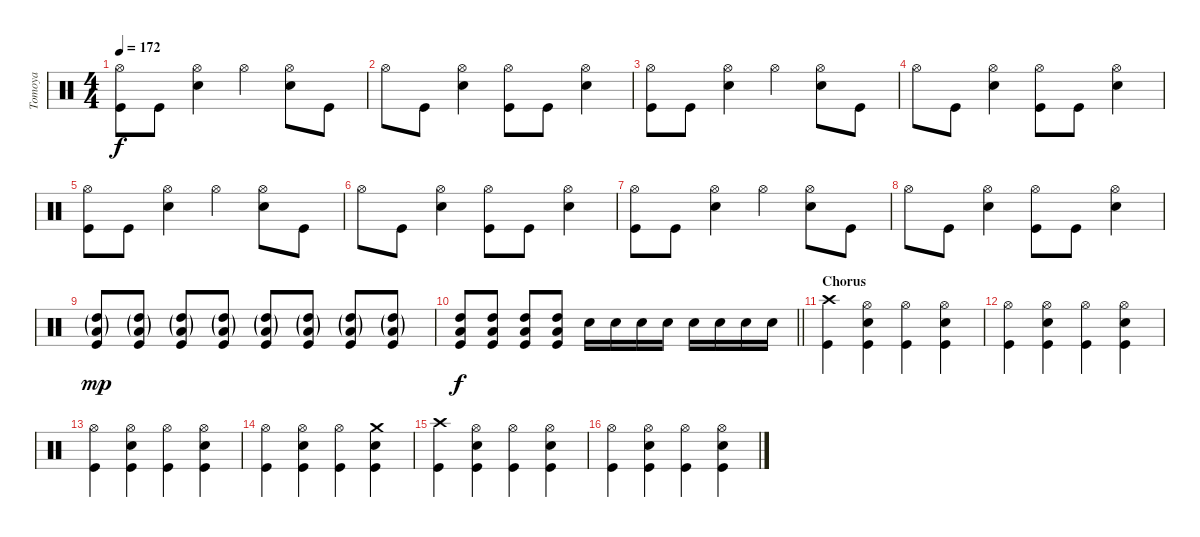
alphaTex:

\track ("Tomoya" "Tomoya") {instrument percussion}
\staff {score}
\articulation defaults
\ts (4 4)
\section ("" "")
\tempo 172
\clef neutral
\ks c
("Hi-Hat (open)" "Kick (hit)").8{dy f} "Kick (hit)".8 ("Hi-Hat (open)" "Snare (hit) 2").4 "Hi-Hat (open)".4 ("Hi-Hat (open)" "Snare (hit) 2").8 "Kick (hit)".8 |
"Hi-Hat (open)".8 "Kick (hit)".8 ("Hi-Hat (open)" "Snare (hit) 2").4 ("Hi-Hat (open)" "Kick (hit)").8 "Kick (hit)".8 ("Hi-Hat (open)" "Snare (hit) 2").4 |
("Hi-Hat (open)" "Kick (hit)").8 "Kick (hit)".8 ("Hi-Hat (open)" "Snare (hit) 2").4 "Hi-Hat (open)".4 ("Hi-Hat (open)" "Snare (hit) 2").8 "Kick (hit)".8 |
"Hi-Hat (open)".8 "Kick (hit)".8 ("Hi-Hat (open)" "Snare (hit) 2").4 ("Hi-Hat (open)" "Kick (hit)").8 "Kick (hit)".8 ("Hi-Hat (open)" "Snare (hit) 2").4 |
("Hi-Hat (open)" "Kick (hit)").8 "Kick (hit)".8 ("Hi-Hat (open)" "Snare (hit) 2").4 "Hi-Hat (open)".4 ("Hi-Hat (open)" "Snare (hit) 2").8 "Kick (hit)".8 |
"Hi-Hat (open)".8 "Kick (hit)".8 ("Hi-Hat (open)" "Snare (hit) 2").4 ("Hi-Hat (open)" "Kick (hit)").8 "Kick (hit)".8 ("Hi-Hat (open)" "Snare (hit) 2").4 |
("Hi-Hat (open)" "Kick (hit)").8 "Kick (hit)".8 ("Hi-Hat (open)" "Snare (hit) 2").4 "Hi-Hat (open)".4 ("Hi-Hat (open)" "Snare (hit) 2").8 "Kick (hit)".8 |
"Hi-Hat (open)".8 "Kick (hit)".8 ("Hi-Hat (open)" "Snare (hit) 2").4 ("Hi-Hat (open)" "Kick (hit)").8 "Kick (hit)".8 ("Hi-Hat (open)" "Snare (hit) 2").4 |
("High Tom (hit)"{g} "Low Tom (hit)"{g} "Kick (hit)").8{dy mp} ("High Tom (hit)"{g} "Low Tom (hit)"{g} "Kick (hit)").8 ("High Tom (hit)"{g} "Low Tom (hit)"{g} "Kick (hit)").8 ("High Tom (hit)"{g} "Low Tom (hit)"{g} "Kick (hit)").8 ("High Tom (hit)"{g} "Low Tom (hit)"{g} "Kick (hit)").8 ("High Tom (hit)"{g} "Low Tom (hit)"{g} "Kick (hit)").8 ("High Tom (hit)"{g} "Low Tom (hit)"{g} "Kick (hit)").8 ("High Tom (hit)"{g} "Low Tom (hit)"{g} "Kick (hit)").8 |
\barLineRight lightlight
("High Tom (hit)" "Low Tom (hit)" "Kick (hit)").8{dy f} ("High Tom (hit)" "Low Tom (hit)" "Kick (hit)").8 ("High Tom (hit)" "Low Tom (hit)" "Kick (hit)").8 ("High Tom (hit)" "Low Tom (hit)" "Kick (hit)").8 "Snare (hit) 2".16 "Snare (hit) 2".16 "Snare (hit) 2".16 "Snare (hit) 2".16 "Snare (hit) 2".16 "Snare (hit) 2".16 "Snare (hit) 2".16 "Snare (hit) 2".16 |
\section ("" "Chorus")
("Crash high (hit)" "Kick (hit)").4 ("Snare (hit) 2" "Hi-Hat (open)" "Kick (hit)").4 ("Hi-Hat (open)" "Kick (hit)").4 ("Snare (hit) 2" "Hi-Hat (open)" "Kick (hit)").4 |
("Hi-Hat (open)" "Kick (hit)").4 ("Snare (hit) 2" "Hi-Hat (open)" "Kick (hit)").4 ("Hi-Hat (open)" "Kick (hit)").4 ("Snare (hit) 2" "Hi-Hat (open)" "Kick (hit)").4 |
("Hi-Hat (open)" "Kick (hit)").4 ("Snare (hit) 2" "Hi-Hat (open)" "Kick (hit)").4 ("Hi-Hat (open)" "Kick (hit)").4 ("Snare (hit) 2" "Hi-Hat (open)" "Kick (hit)").4 |
("Hi-Hat (open)" "Kick (hit)").4 ("Snare (hit) 2" "Hi-Hat (open)" "Kick (hit)").4 ("Hi-Hat (open)" "Kick (hit)").4 ("Snare (hit) 2" "Crash medium (hit)" "Kick (hit)").4 |
("Crash high (hit)" "Kick (hit)").4 ("Snare (hit) 2" "Hi-Hat (open)" "Kick (hit)").4 ("Hi-Hat (open)" "Kick (hit)").4 ("Snare (hit) 2" "Hi-Hat (open)" "Kick (hit)").4 |
("Hi-Hat (open)" "Kick (hit)").4 ("Snare (hit) 2" "Hi-Hat (open)" "Kick (hit)").4 ("Hi-Hat (open)" "Kick (hit)").4 ("Snare (hit) 2" "Hi-Hat (open)" "Kick (hit)").4
